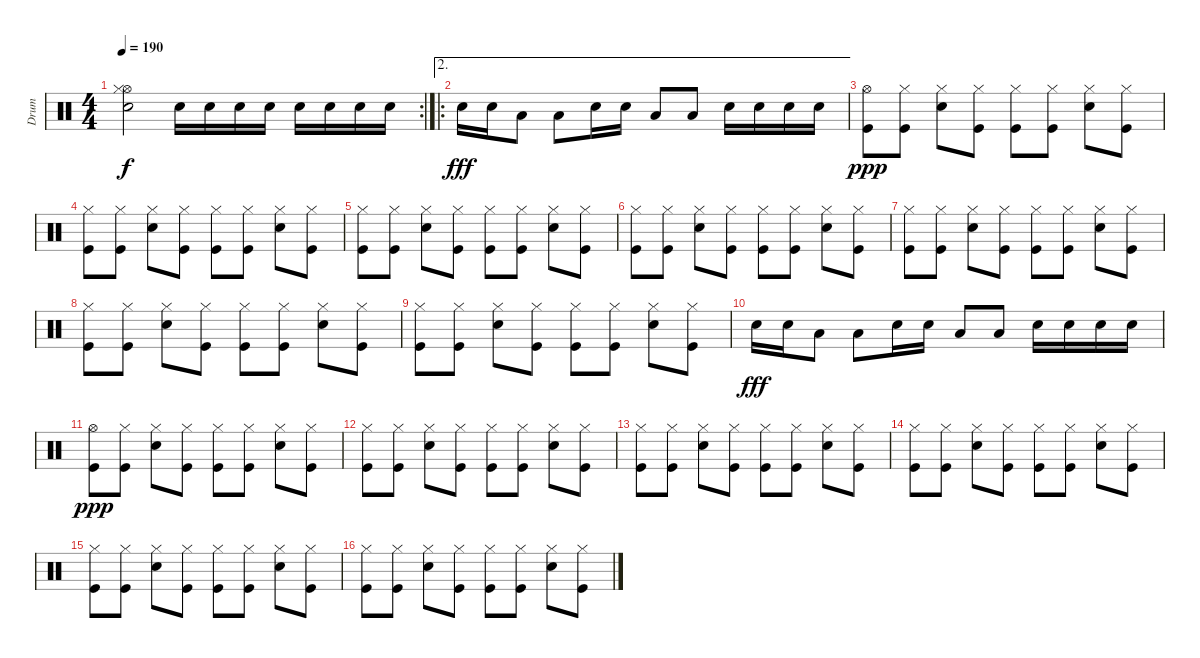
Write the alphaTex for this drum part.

\track ("Drum" "Drum") {instrument percussion}
\staff {score}
\articulation defaults
\rc 2
\ts (4 4)
\tempo 190
\clef neutral
\ks c
("Hi-Hat (open)" "Hi-Hat (closed)" "Snare (hit) 2").2{dy f} "Snare (hit) 2".16 "Snare (hit) 2".16 "Snare (hit) 2".16 "Snare (hit) 2".16 "Snare (hit) 2".16 "Snare (hit) 2".16 "Snare (hit) 2".16 "Snare (hit) 2".16 |
\ae 2
\ro "Snare (hit) 2".16{dy fff} "Snare (hit) 2".16 "Low Tom (hit)".8 "Low Tom (hit)".8 "Snare (hit) 2".16 "Snare (hit) 2".16 "Low Tom (hit)".8 "Low Tom (hit)".8 "Snare (hit) 2".16 "Snare (hit) 2".16 "Snare (hit) 2".16 "Snare (hit) 2".16
|
("Hi-Hat (open)" "Kick (hit)").8{dy ppp} ("Hi-Hat (closed)" "Kick (hit)").8 ("Hi-Hat (closed)" "Snare (hit) 2").8 ("Hi-Hat (closed)" "Kick (hit)").8 ("Hi-Hat (closed)" "Kick (hit)").8 ("Hi-Hat (closed)" "Kick (hit)").8 ("Hi-Hat (closed)" "Snare (hit) 2").8 ("Hi-Hat (closed)" "Kick (hit)").8 |
("Hi-Hat (closed)" "Kick (hit)").8 ("Hi-Hat (closed)" "Kick (hit)").8 ("Hi-Hat (closed)" "Snare (hit) 2").8 ("Hi-Hat (closed)" "Kick (hit)").8 ("Hi-Hat (closed)" "Kick (hit)").8 ("Hi-Hat (closed)" "Kick (hit)").8 ("Hi-Hat (closed)" "Snare (hit) 2").8 ("Hi-Hat (closed)" "Kick (hit)").8 |
("Hi-Hat (closed)" "Kick (hit)").8 ("Hi-Hat (closed)" "Kick (hit)").8 ("Hi-Hat (closed)" "Snare (hit) 2").8 ("Hi-Hat (closed)" "Kick (hit)").8 ("Hi-Hat (closed)" "Kick (hit)").8 ("Hi-Hat (closed)" "Kick (hit)").8 ("Hi-Hat (closed)" "Snare (hit) 2").8 ("Hi-Hat (closed)" "Kick (hit)").8 |
("Hi-Hat (closed)" "Kick (hit)").8 ("Hi-Hat (closed)" "Kick (hit)").8 ("Hi-Hat (closed)" "Snare (hit) 2").8 ("Hi-Hat (closed)" "Kick (hit)").8 ("Hi-Hat (closed)" "Kick (hit)").8 ("Hi-Hat (closed)" "Kick (hit)").8 ("Hi-Hat (closed)" "Snare (hit) 2").8 ("Hi-Hat (closed)" "Kick (hit)").8 |
("Hi-Hat (closed)" "Kick (hit)").8 ("Hi-Hat (closed)" "Kick (hit)").8 ("Hi-Hat (closed)" "Snare (hit) 2").8 ("Hi-Hat (closed)" "Kick (hit)").8 ("Hi-Hat (closed)" "Kick (hit)").8 ("Hi-Hat (closed)" "Kick (hit)").8 ("Hi-Hat (closed)" "Snare (hit) 2").8 ("Hi-Hat (closed)" "Kick (hit)").8 |
("Hi-Hat (closed)" "Kick (hit)").8 ("Hi-Hat (closed)" "Kick (hit)").8 ("Hi-Hat (closed)" "Snare (hit) 2").8 ("Hi-Hat (closed)" "Kick (hit)").8 ("Hi-Hat (closed)" "Kick (hit)").8 ("Hi-Hat (closed)" "Kick (hit)").8 ("Hi-Hat (closed)" "Snare (hit) 2").8 ("Hi-Hat (closed)" "Kick (hit)").8 |
("Hi-Hat (closed)" "Kick (hit)").8 ("Hi-Hat (closed)" "Kick (hit)").8 ("Hi-Hat (closed)" "Snare (hit) 2").8 ("Hi-Hat (closed)" "Kick (hit)").8 ("Hi-Hat (closed)" "Kick (hit)").8 ("Hi-Hat (closed)" "Kick (hit)").8 ("Hi-Hat (closed)" "Snare (hit) 2").8 ("Hi-Hat (closed)" "Kick (hit)").8 |
"Snare (hit) 2".16{dy fff} "Snare (hit) 2".16 "Low Tom (hit)".8 "Low Tom (hit)".8 "Snare (hit) 2".16 "Snare (hit) 2".16 "Low Tom (hit)".8 "Low Tom (hit)".8 "Snare (hit) 2".16 "Snare (hit) 2".16 "Snare (hit) 2".16 "Snare (hit) 2".16 |
("Hi-Hat (open)" "Kick (hit)").8{dy ppp} ("Hi-Hat (closed)" "Kick (hit)").8 ("Hi-Hat (closed)" "Snare (hit) 2").8 ("Hi-Hat (closed)" "Kick (hit)").8 ("Hi-Hat (closed)" "Kick (hit)").8 ("Hi-Hat (closed)" "Kick (hit)").8 ("Hi-Hat (closed)" "Snare (hit) 2").8 ("Hi-Hat (closed)" "Kick (hit)").8 |
("Hi-Hat (closed)" "Kick (hit)").8 ("Hi-Hat (closed)" "Kick (hit)").8 ("Hi-Hat (closed)" "Snare (hit) 2").8 ("Hi-Hat (closed)" "Kick (hit)").8 ("Hi-Hat (closed)" "Kick (hit)").8 ("Hi-Hat (closed)" "Kick (hit)").8 ("Hi-Hat (closed)" "Snare (hit) 2").8 ("Hi-Hat (closed)" "Kick (hit)").8 |
("Hi-Hat (closed)" "Kick (hit)").8 ("Hi-Hat (closed)" "Kick (hit)").8 ("Hi-Hat (closed)" "Snare (hit) 2").8 ("Hi-Hat (closed)" "Kick (hit)").8 ("Hi-Hat (closed)" "Kick (hit)").8 ("Hi-Hat (closed)" "Kick (hit)").8 ("Hi-Hat (closed)" "Snare (hit) 2").8 ("Hi-Hat (closed)" "Kick (hit)").8 |
("Hi-Hat (closed)" "Kick (hit)").8 ("Hi-Hat (closed)" "Kick (hit)").8 ("Hi-Hat (closed)" "Snare (hit) 2").8 ("Hi-Hat (closed)" "Kick (hit)").8 ("Hi-Hat (closed)" "Kick (hit)").8 ("Hi-Hat (closed)" "Kick (hit)").8 ("Hi-Hat (closed)" "Snare (hit) 2").8 ("Hi-Hat (closed)" "Kick (hit)").8 |
("Hi-Hat (closed)" "Kick (hit)").8 ("Hi-Hat (closed)" "Kick (hit)").8 ("Hi-Hat (closed)" "Snare (hit) 2").8 ("Hi-Hat (closed)" "Kick (hit)").8 ("Hi-Hat (closed)" "Kick (hit)").8 ("Hi-Hat (closed)" "Kick (hit)").8 ("Hi-Hat (closed)" "Snare (hit) 2").8 ("Hi-Hat (closed)" "Kick (hit)").8 |
("Hi-Hat (closed)" "Kick (hit)").8 ("Hi-Hat (closed)" "Kick (hit)").8 ("Hi-Hat (closed)" "Snare (hit) 2").8 ("Hi-Hat (closed)" "Kick (hit)").8 ("Hi-Hat (closed)" "Kick (hit)").8 ("Hi-Hat (closed)" "Kick (hit)").8 ("Hi-Hat (closed)" "Snare (hit) 2").8 ("Hi-Hat (closed)" "Kick (hit)").8
